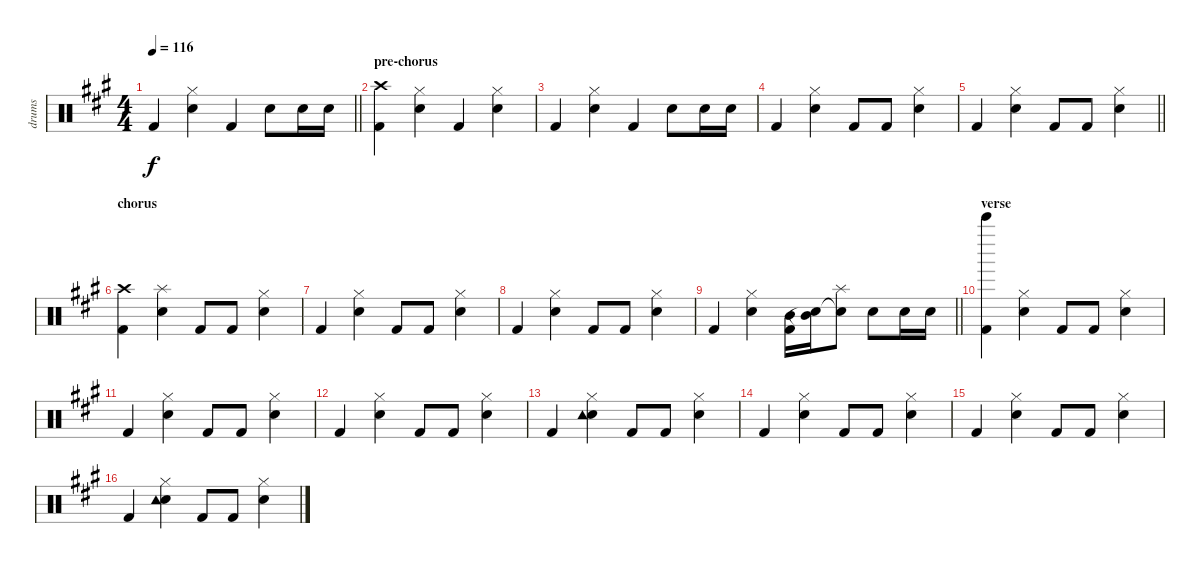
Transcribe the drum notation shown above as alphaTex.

\track ("drums" "drums") {instrument percussion}
\staff {score}
\articulation defaults
\ts (4 4)
\tempo 116
\clef neutral
\barLineRight lightlight
\ks a "Kick (hit) 2".4{dy f}
("Hi-Hat (closed)" "Electric Snare (hit)").4 "Kick (hit) 2".4 "Electric Snare (hit)".8 "Electric Snare (hit)".16 "Electric Snare (hit)".16 |
\section ("" "pre-chorus")
("Crash high (hit)" "Kick (hit) 2").4 ("Hi-Hat (closed)" "Electric Snare (hit)").4 "Kick (hit) 2".4 ("Hi-Hat (closed)" "Electric Snare (hit)").4 |
"Kick (hit) 2".4 ("Hi-Hat (closed)" "Electric Snare (hit)").4 "Kick (hit) 2".4 "Electric Snare (hit)".8 "Electric Snare (hit)".16 "Electric Snare (hit)".16 |
"Kick (hit) 2".4 ("Hi-Hat (closed)" "Electric Snare (hit)").4 "Kick (hit) 2".8 "Kick (hit) 2".8 ("Hi-Hat (closed)" "Electric Snare (hit)").4 |
\barLineRight lightlight "Kick (hit) 2".4
("Hi-Hat (closed)" "Electric Snare (hit)").4 "Kick (hit) 2".8 "Kick (hit) 2".8 ("Hi-Hat (closed)" "Electric Snare (hit)").4 |
\section ("" "chorus")
("Crash high (hit)" "Kick (hit) 2").4 ("Splash (hit)" "Electric Snare (hit)").4 "Kick (hit) 2".8 "Kick (hit) 2".8 ("Hi-Hat (closed)" "Electric Snare (hit)").4 |
"Kick (hit) 2".4 ("Hi-Hat (closed)" "Electric Snare (hit)").4 "Kick (hit) 2".8 "Kick (hit) 2".8 ("Hi-Hat (closed)" "Electric Snare (hit)").4 |
"Kick (hit) 2".4 ("Hi-Hat (closed)" "Electric Snare (hit)").4 "Kick (hit) 2".8 "Kick (hit) 2".8 ("Hi-Hat (closed)" "Electric Snare (hit)").4 |
\barLineRight lightlight "Kick (hit) 2".4
("Hi-Hat (closed)" "Electric Snare (hit)").4 ("Mid Tom (hit)" "Kick (hit) 2").16 ("Mid Tom (hit)" "Snare (hit)"{t}).16 ("Splash (hit)" "Snare (hit)"{t}).8 "Electric Snare (hit)".8 "Electric Snare (hit)".16 "Electric Snare (hit)".16 |
\section ("" "verse")
("Bell Tree (hit)" "Kick (hit) 2").4 ("Hi-Hat (closed)" "Electric Snare (hit)").4 "Kick (hit) 2".8 "Kick (hit) 2".8 ("Hi-Hat (closed)" "Electric Snare (hit)").4 |
"Kick (hit) 2".4 ("Hi-Hat (closed)" "Electric Snare (hit)").4 "Kick (hit) 2".8 "Kick (hit) 2".8 ("Hi-Hat (closed)" "Electric Snare (hit)").4 |
"Kick (hit) 2".4 ("Hi-Hat (closed)" "Electric Snare (hit)").4 "Kick (hit) 2".8 "Kick (hit) 2".8 ("Hi-Hat (closed)" "Electric Snare (hit)").4 |
"Kick (hit) 2".4 ("Hi-Hat (closed)" "Electric Snare (hit)" "Tambourine (hit)").4 "Kick (hit) 2".8 "Kick (hit) 2".8 ("Hi-Hat (closed)" "Electric Snare (hit)").4 |
"Kick (hit) 2".4 ("Hi-Hat (closed)" "Electric Snare (hit)").4 "Kick (hit) 2".8 "Kick (hit) 2".8 ("Hi-Hat (closed)" "Electric Snare (hit)").4 |
"Kick (hit) 2".4 ("Hi-Hat (closed)" "Electric Snare (hit)").4 "Kick (hit) 2".8 "Kick (hit) 2".8 ("Hi-Hat (closed)" "Electric Snare (hit)").4 |
"Kick (hit) 2".4 ("Hi-Hat (closed)" "Electric Snare (hit)" "Tambourine (hit)").4 "Kick (hit) 2".8 "Kick (hit) 2".8 ("Hi-Hat (closed)" "Electric Snare (hit)").4
